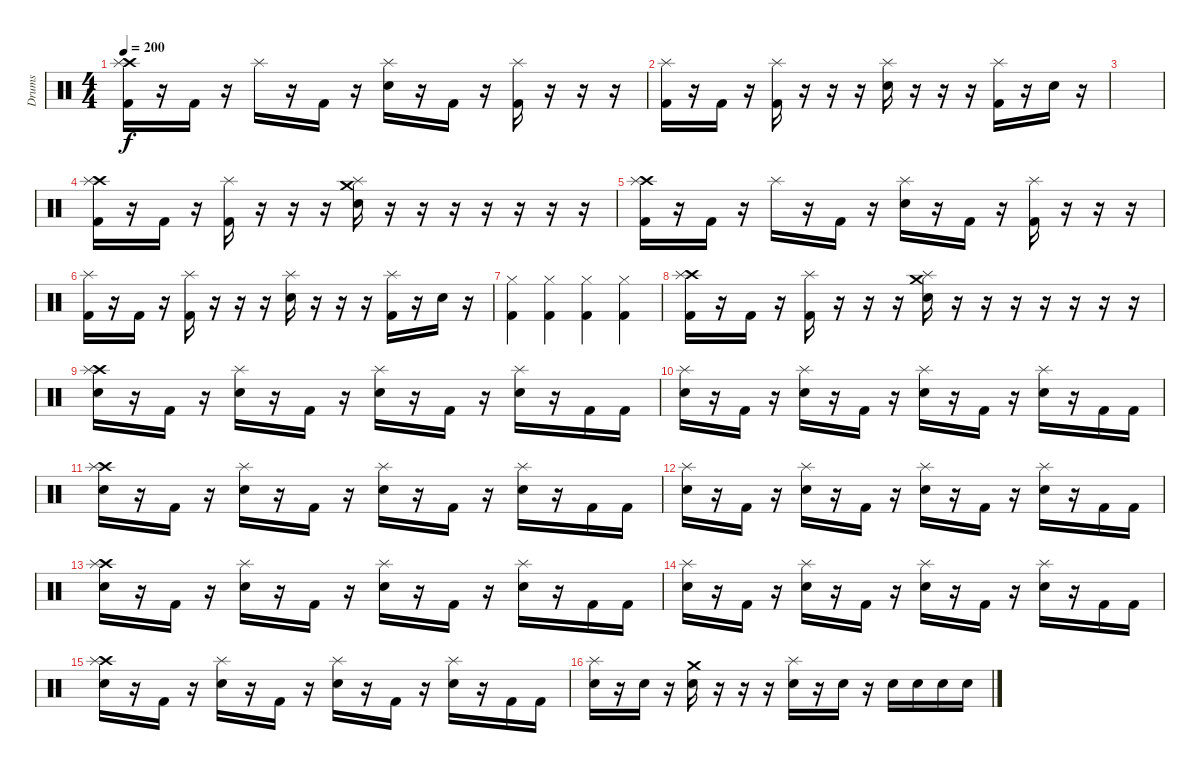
\track ("Drums" "Drums") {instrument percussion}
\staff {score}
\articulation defaults
\ts (4 4)
\tempo 200
\clef neutral
\ks c
("Crash high (hit)" "Splash (hit)" "Kick (hit) 2").16{dy f} r.16 "Kick (hit) 2".16 r.16 "Splash (hit)".16 r.16 "Kick (hit) 2".16 r.16 ("Splash (hit)" "Electric Snare (hit)").16 r.16 "Kick (hit) 2".16 r.16 ("Splash (hit)" "Kick (hit) 2").16 r.16 r.16 r.16 |
("Splash (hit)" "Kick (hit) 2").16 r.16 "Kick (hit) 2".16 r.16 ("Splash (hit)" "Kick (hit) 2").16 r.16 r.16 r.16 ("Splash (hit)" "Electric Snare (hit)").16 r.16 r.16 r.16 ("Splash (hit)" "Kick (hit) 2").16 r.16 "Electric Snare (hit)".16 r.16 |
|
("Crash high (hit)" "Splash (hit)" "Kick (hit) 2").16 r.16 "Kick (hit) 2".16 r.16 ("Splash (hit)" "Kick (hit) 2").16 r.16 r.16 r.16 ("Crash medium (hit)" "Splash (hit)" "Electric Snare (hit)").16 r.16 r.16 r.16 r.16 r.16 r.16 r.16 |
("Crash high (hit)" "Splash (hit)" "Kick (hit) 2").16 r.16 "Kick (hit) 2".16 r.16 "Splash (hit)".16 r.16 "Kick (hit) 2".16 r.16 ("Splash (hit)" "Electric Snare (hit)").16 r.16 "Kick (hit) 2".16 r.16 ("Splash (hit)" "Kick (hit) 2").16 r.16 r.16 r.16 |
("Splash (hit)" "Kick (hit) 2").16 r.16 "Kick (hit) 2".16 r.16 ("Splash (hit)" "Kick (hit) 2").16 r.16 r.16 r.16 ("Splash (hit)" "Electric Snare (hit)").16 r.16 r.16 r.16 ("Splash (hit)" "Kick (hit) 2").16 r.16 "Electric Snare (hit)".16 r.16 |
("Hi-Hat (closed)" "Kick (hit) 2").4 ("Hi-Hat (closed)" "Kick (hit) 2").4 ("Hi-Hat (closed)" "Kick (hit) 2").4 ("Hi-Hat (closed)" "Kick (hit) 2").4 |
("Crash high (hit)" "Splash (hit)" "Kick (hit) 2").16 r.16 "Kick (hit) 2".16 r.16 ("Splash (hit)" "Kick (hit) 2").16 r.16 r.16 r.16 ("Crash medium (hit)" "Splash (hit)" "Electric Snare (hit)").16 r.16 r.16 r.16 r.16 r.16 r.16 r.16 |
("Crash high (hit)" "Splash (hit)" "Electric Snare (hit)").16 r.16 "Kick (hit) 2".16 r.16 ("Splash (hit)" "Electric Snare (hit)").16 r.16 "Kick (hit) 2".16 r.16 ("Splash (hit)" "Electric Snare (hit)").16 r.16 "Kick (hit) 2".16 r.16 ("Splash (hit)" "Electric Snare (hit)").16 r.16 "Kick (hit) 2".16 "Kick (hit) 2".16 |
("Splash (hit)" "Electric Snare (hit)").16 r.16 "Kick (hit) 2".16 r.16 ("Splash (hit)" "Electric Snare (hit)").16 r.16 "Kick (hit) 2".16 r.16 ("Splash (hit)" "Electric Snare (hit)").16 r.16 "Kick (hit) 2".16 r.16 ("Splash (hit)" "Electric Snare (hit)").16 r.16 "Kick (hit) 2".16 "Kick (hit) 2".16 |
("Crash high (hit)" "Splash (hit)" "Electric Snare (hit)").16 r.16 "Kick (hit) 2".16 r.16 ("Splash (hit)" "Electric Snare (hit)").16 r.16 "Kick (hit) 2".16 r.16 ("Splash (hit)" "Electric Snare (hit)").16 r.16 "Kick (hit) 2".16 r.16 ("Splash (hit)" "Electric Snare (hit)").16 r.16 "Kick (hit) 2".16 "Kick (hit) 2".16 |
("Splash (hit)" "Electric Snare (hit)").16 r.16 "Kick (hit) 2".16 r.16 ("Splash (hit)" "Electric Snare (hit)").16 r.16 "Kick (hit) 2".16 r.16 ("Splash (hit)" "Electric Snare (hit)").16 r.16 "Kick (hit) 2".16 r.16 ("Splash (hit)" "Electric Snare (hit)").16 r.16 "Kick (hit) 2".16 "Kick (hit) 2".16 |
("Crash high (hit)" "Splash (hit)" "Electric Snare (hit)").16 r.16 "Kick (hit) 2".16 r.16 ("Splash (hit)" "Electric Snare (hit)").16 r.16 "Kick (hit) 2".16 r.16 ("Splash (hit)" "Electric Snare (hit)").16 r.16 "Kick (hit) 2".16 r.16 ("Splash (hit)" "Electric Snare (hit)").16 r.16 "Kick (hit) 2".16 "Kick (hit) 2".16 |
("Splash (hit)" "Electric Snare (hit)").16 r.16 "Kick (hit) 2".16 r.16 ("Splash (hit)" "Electric Snare (hit)").16 r.16 "Kick (hit) 2".16 r.16 ("Splash (hit)" "Electric Snare (hit)").16 r.16 "Kick (hit) 2".16 r.16 ("Splash (hit)" "Electric Snare (hit)").16 r.16 "Kick (hit) 2".16 "Kick (hit) 2".16 |
("Crash high (hit)" "Splash (hit)" "Electric Snare (hit)").16 r.16 "Kick (hit) 2".16 r.16 ("Splash (hit)" "Electric Snare (hit)").16 r.16 "Kick (hit) 2".16 r.16 ("Splash (hit)" "Electric Snare (hit)").16 r.16 "Kick (hit) 2".16 r.16 ("Splash (hit)" "Electric Snare (hit)").16 r.16 "Kick (hit) 2".16 "Kick (hit) 2".16 |
("Splash (hit)" "Electric Snare (hit)").16 r.16 "Electric Snare (hit)".16 r.16 ("Crash medium (hit)" "Electric Snare (hit)").16 r.16 r.16 r.16 ("Splash (hit)" "Electric Snare (hit)").16 r.16 "Electric Snare (hit)".16 r.16 "Electric Snare (hit)".16 "Electric Snare (hit)".16 "Electric Snare (hit)".16 "Electric Snare (hit)".16
